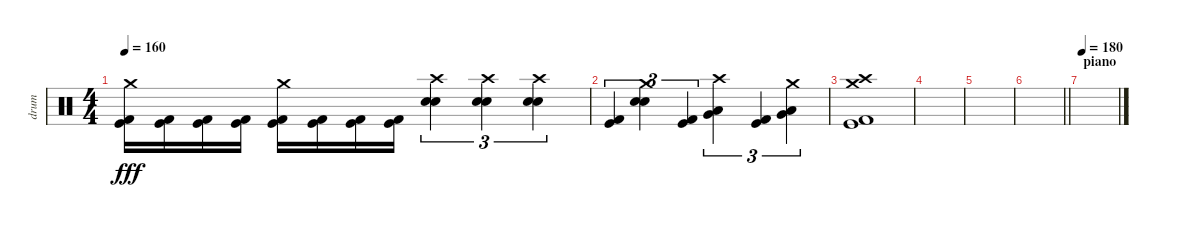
\track ("drum" "drum") {instrument percussion}
\staff {score}
\articulation defaults
\ts (4 4)
\tempo 160
\clef neutral
\ks c
("Crash medium (hit)" "Kick (hit)" "Kick (hit) 2").16{dy fff} ("Kick (hit)" "Kick (hit) 2").16 ("Kick (hit)" "Kick (hit) 2").16 ("Kick (hit)" "Kick (hit) 2").16 ("Crash medium (hit)" "Kick (hit)" "Kick (hit) 2").16 ("Kick (hit)" "Kick (hit) 2").16 ("Kick (hit)" "Kick (hit) 2").16 ("Kick (hit)" "Kick (hit) 2").16 ("Crash high (hit)" "Electric Snare (hit)" "Electric Snare (hit)").4{tu (3 2)} ("Crash high (hit)" "Electric Snare (hit)" "Electric Snare (hit)").4{tu (3 2)} ("Crash high (hit)" "Electric Snare (hit)" "Electric Snare (hit)").4{tu (3 2)} |
("Kick (hit)" "Kick (hit) 2").4{tu (3 2)} ("Crash medium (hit)" "Electric Snare (hit)" "Electric Snare (hit)").4{tu (3 2)} ("Kick (hit)" "Kick (hit) 2").4{tu (3 2)} ("Crash high (hit)" "Low Tom (hit)" "Very Low Tom (hit)").4{tu (3 2)} ("Kick (hit)" "Kick (hit) 2").4{tu (3 2)} ("Crash medium (hit)" "Very Low Tom (hit)" "Low Floor Tom (hit)").4{tu (3 2)} |
("Crash high (hit)" "Crash medium (hit)" "Kick (hit)" "Kick (hit) 2").1 |
|
|
\barLineRight lightlight
|
\section ("" "piano")
\tempo 180
